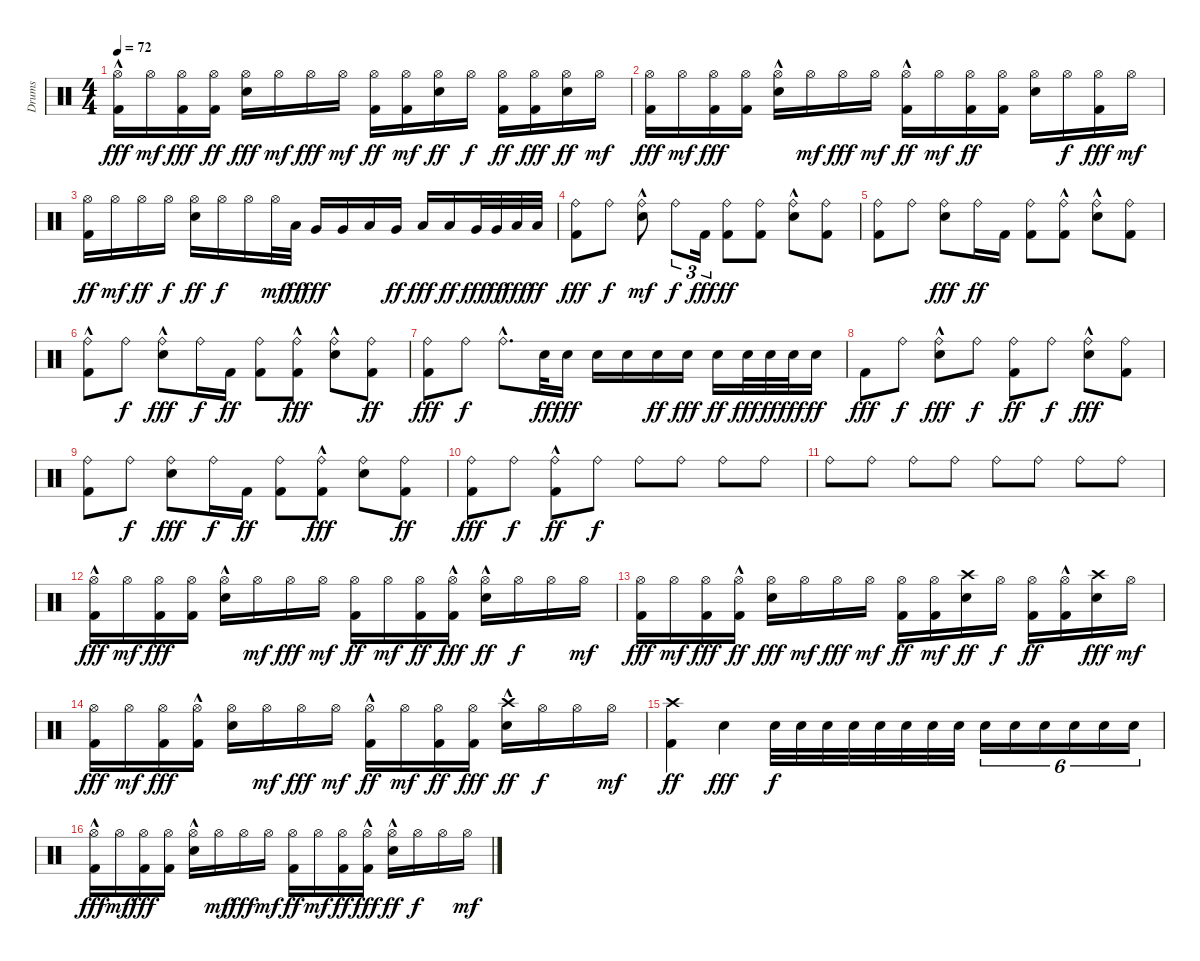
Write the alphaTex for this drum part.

\track ("Drums" "Drums") {instrument percussion}
\staff {score}
\articulation defaults
\ts (4 4)
\tempo 72
\clef neutral
\ks c
("Kick (hit) 2"{hac} "Hi-Hat (open)").16{dy fff} "Hi-Hat (open)".16{dy mf} ("Kick (hit) 2" "Hi-Hat (open)").16{dy fff} ("Kick (hit) 2" "Hi-Hat (open)").16{dy ff} ("Snare (hit) 2" "Hi-Hat (open)").16{dy fff} "Hi-Hat (open)".16{dy mf} "Hi-Hat (open)".16{dy fff} "Hi-Hat (open)".16{dy mf} ("Kick (hit) 2" "Hi-Hat (open)").16{dy ff} ("Kick (hit) 2" "Hi-Hat (open)").16{dy mf} ("Snare (hit) 2" "Hi-Hat (open)").16{dy ff} "Hi-Hat (open)".16{dy f} ("Kick (hit) 2" "Hi-Hat (open)").16{dy ff} ("Kick (hit) 2" "Hi-Hat (open)").16{dy fff} ("Snare (hit) 2" "Hi-Hat (open)").16{dy ff} "Hi-Hat (open)".16{dy mf} |
("Kick (hit) 2" "Hi-Hat (open)").16{dy fff} "Hi-Hat (open)".16{dy mf} ("Kick (hit) 2" "Hi-Hat (open)").16{dy fff} ("Kick (hit) 2" "Hi-Hat (open)").16 ("Snare (hit) 2"{hac} "Hi-Hat (open)").16 "Hi-Hat (open)".16{dy mf} "Hi-Hat (open)".16{dy fff} "Hi-Hat (open)".16{dy mf} ("Kick (hit) 2"{hac} "Hi-Hat (open)").16{dy ff} "Hi-Hat (open)".16{dy mf} ("Kick (hit) 2" "Hi-Hat (open)").16{dy ff} ("Kick (hit) 2" "Hi-Hat (open)").16 ("Snare (hit) 2" "Hi-Hat (open)").16 "Hi-Hat (open)".16{dy f} ("Kick (hit) 2" "Hi-Hat (open)").16{dy fff} "Hi-Hat (open)".16{dy mf} |
("Kick (hit) 2" "Hi-Hat (open)").16{dy ff} "Hi-Hat (open)".16{dy mf} "Hi-Hat (open)".16{dy ff} "Hi-Hat (open)".16{dy f} ("Snare (hit) 2" "Hi-Hat (open)").16{dy ff} "Hi-Hat (open)".16{dy f} "Hi-Hat (open)".16 "Hi-Hat (open)".32{dy mf} "Low Floor Tom (hit)".32{dy ff} "Very Low Tom (hit)".16{dy fff} "Very Low Tom (hit)".16 "Low Floor Tom (hit)".16 "Very Low Tom (hit)".16{dy ff} "Low Tom (hit)".16{dy fff} "Low Tom (hit)".16{dy ff} "Very Low Tom (hit)".32{dy fff} "Very Low Tom (hit)".32{dy ff} "Low Floor Tom (hit)".32{dy fff} "Low Floor Tom (hit)".32{dy ff} |
("Ride (bell)" "Kick (hit) 2").8{dy fff} "Ride (bell)".8{dy f} ("Snare (hit) 2"{hac} "Ride (bell)").8{dy mf} "Ride (bell)".8{tu (3 2) dy f} "Kick (hit) 2".16{tu (3 2) dy fff} ("Ride (bell)" "Kick (hit) 2").8{dy ff} ("Kick (hit) 2" "Ride (bell)").8 ("Snare (hit) 2"{hac} "Ride (bell)").8 ("Kick (hit) 2" "Ride (bell)").8 |
("Kick (hit) 2" "Ride (bell)").8 "Ride (bell)".8 ("Snare (hit) 2" "Ride (bell)").8{dy fff} "Ride (bell)".16{dy ff} "Kick (hit) 2".16 ("Kick (hit) 2" "Ride (bell)").8 ("Kick (hit) 2"{hac} "Ride (bell)").8 ("Snare (hit) 2"{hac} "Ride (bell)").8 ("Kick (hit) 2" "Ride (bell)").8 |
("Kick (hit) 2"{hac} "Ride (bell)").8 "Ride (bell)".8{dy f} ("Snare (hit) 2"{hac} "Ride (bell)").8{dy fff} "Ride (bell)".16{dy f} "Kick (hit) 2".16{dy ff} ("Kick (hit) 2" "Ride (bell)").8 ("Kick (hit) 2"{hac} "Ride (bell)").8{dy fff} ("Snare (hit) 2"{hac} "Ride (bell)").8 ("Kick (hit) 2" "Ride (bell)").8{dy ff} |
("Kick (hit) 2" "Ride (bell)").8{dy fff} "Ride (bell)".8{dy f} "Ride (bell)"{hac}.8{d} "Snare (hit) 2".32{dy ff} "Snare (hit) 2".16{dy fff} "Snare (hit) 2".16 "Snare (hit) 2".16 "Snare (hit) 2".16{dy ff} "Snare (hit) 2".16{dy fff} "Snare (hit) 2".16{dy ff} "Snare (hit) 2".32{dy fff} "Snare (hit) 2".32{dy ff} "Snare (hit) 2".32{dy fff} "Snare (hit) 2".16{dy ff} |
"Kick (hit) 2".8{dy fff} "Ride (bell)".8{dy f} ("Snare (hit) 2"{hac} "Ride (bell)").8{dy fff} "Ride (bell)".8{dy f} ("Ride (bell)" "Kick (hit) 2").8{dy ff} "Ride (bell)".8{dy f} ("Snare (hit) 2"{hac} "Ride (bell)").8{dy fff} ("Kick (hit) 2" "Ride (bell)").8 |
("Kick (hit) 2" "Ride (bell)").8 "Ride (bell)".8{dy f} ("Snare (hit) 2" "Ride (bell)").8{dy fff} "Ride (bell)".16{dy f} "Kick (hit) 2".16{dy ff} ("Kick (hit) 2" "Ride (bell)").8 ("Kick (hit) 2"{hac} "Ride (bell)").8{dy fff} ("Snare (hit) 2" "Ride (bell)").8 ("Kick (hit) 2" "Ride (bell)").8{dy ff} |
("Kick (hit) 2" "Ride (bell)").8{dy fff} "Ride (bell)".8{dy f} ("Ride (bell)" "Kick (hit) 2"{hac}).8{dy ff} "Ride (bell)".8{dy f} "Ride (bell)".8 "Ride (bell)".8 "Ride (bell)".8 "Ride (bell)".8 |
"Ride (bell)".8 "Ride (bell)".8 "Ride (bell)".8 "Ride (bell)".8 "Ride (bell)".8 "Ride (bell)".8 "Ride (bell)".8 "Ride (bell)".8 |
("Kick (hit) 2"{hac} "Hi-Hat (open)").16{dy fff} "Hi-Hat (open)".16{dy mf} ("Kick (hit) 2" "Hi-Hat (open)").16{dy fff} ("Kick (hit) 2" "Hi-Hat (open)").16 ("Snare (hit) 2"{hac} "Hi-Hat (open)").16 "Hi-Hat (open)".16{dy mf} "Hi-Hat (open)".16{dy fff} "Hi-Hat (open)".16{dy mf} ("Kick (hit) 2" "Hi-Hat (open)").16{dy ff} "Hi-Hat (open)".16{dy mf} ("Kick (hit) 2" "Hi-Hat (open)").16{dy ff} ("Kick (hit) 2"{hac} "Hi-Hat (open)").16{dy fff} ("Snare (hit) 2"{hac} "Hi-Hat (open)").16{dy ff} "Hi-Hat (open)".16{dy f} "Hi-Hat (open)".16 "Hi-Hat (open)".16{dy mf} |
("Kick (hit) 2" "Hi-Hat (open)").16{dy fff} "Hi-Hat (open)".16{dy mf} ("Kick (hit) 2" "Hi-Hat (open)").16{dy fff} ("Kick (hit) 2"{hac} "Hi-Hat (open)").16{dy ff} ("Snare (hit) 2" "Hi-Hat (open)").16{dy fff} "Hi-Hat (open)".16{dy mf} "Hi-Hat (open)".16{dy fff} "Hi-Hat (open)".16{dy mf} ("Kick (hit) 2" "Hi-Hat (open)").16{dy ff} ("Kick (hit) 2" "Hi-Hat (open)").16{dy mf} ("Snare (hit) 2" "Crash high (hit)").16{dy ff} "Hi-Hat (open)".16{dy f} ("Kick (hit) 2" "Hi-Hat (open)").16{dy ff} ("Kick (hit) 2"{hac} "Hi-Hat (open)").16 ("Snare (hit) 2" "Crash high (hit)").16{dy fff} "Hi-Hat (open)".16{dy mf} |
("Kick (hit) 2" "Hi-Hat (open)").16{dy fff} "Hi-Hat (open)".16{dy mf} ("Kick (hit) 2" "Hi-Hat (open)").16{dy fff} ("Kick (hit) 2"{hac} "Hi-Hat (open)").16 ("Snare (hit) 2" "Hi-Hat (open)").16 "Hi-Hat (open)".16{dy mf} "Hi-Hat (open)".16{dy fff} "Hi-Hat (open)".16{dy mf} ("Kick (hit) 2"{hac} "Hi-Hat (open)").16{dy ff} "Hi-Hat (open)".16{dy mf} ("Kick (hit) 2" "Hi-Hat (open)").16{dy ff} ("Kick (hit) 2" "Hi-Hat (open)").16{dy fff} ("Snare (hit) 2"{hac} "Crash high (hit)").16{dy ff} "Hi-Hat (open)".16{dy f} "Hi-Hat (open)".16 "Hi-Hat (open)".16{dy mf} |
("Kick (hit) 2" "Crash high (hit)").4{dy ff} "Snare (hit) 2".4{dy fff} "Snare (hit) 2".32{dy f} "Snare (hit) 2".32 "Snare (hit) 2".32 "Snare (hit) 2".32 "Snare (hit) 2".32 "Snare (hit) 2".32 "Snare (hit) 2".32 "Snare (hit) 2".32 "Snare (hit) 2".16{tu (6 4)} "Snare (hit) 2".16{tu (6 4)} "Snare (hit) 2".16{tu (6 4)} "Snare (hit) 2".16{tu (6 4)} "Snare (hit) 2".16{tu (6 4)} "Snare (hit) 2".16{tu (6 4)} |
("Kick (hit) 2"{hac} "Hi-Hat (open)").16{dy fff} "Hi-Hat (open)".16{dy mf} ("Kick (hit) 2" "Hi-Hat (open)").16{dy fff} ("Kick (hit) 2" "Hi-Hat (open)").16 ("Snare (hit) 2"{hac} "Hi-Hat (open)").16 "Hi-Hat (open)".16{dy mf} "Hi-Hat (open)".16{dy fff} "Hi-Hat (open)".16{dy mf} ("Kick (hit) 2" "Hi-Hat (open)").16{dy ff} "Hi-Hat (open)".16{dy mf} ("Kick (hit) 2" "Hi-Hat (open)").16{dy ff} ("Kick (hit) 2"{hac} "Hi-Hat (open)").16{dy fff} ("Snare (hit) 2"{hac} "Hi-Hat (open)").16{dy ff} "Hi-Hat (open)".16{dy f} "Hi-Hat (open)".16 "Hi-Hat (open)".16{dy mf}
